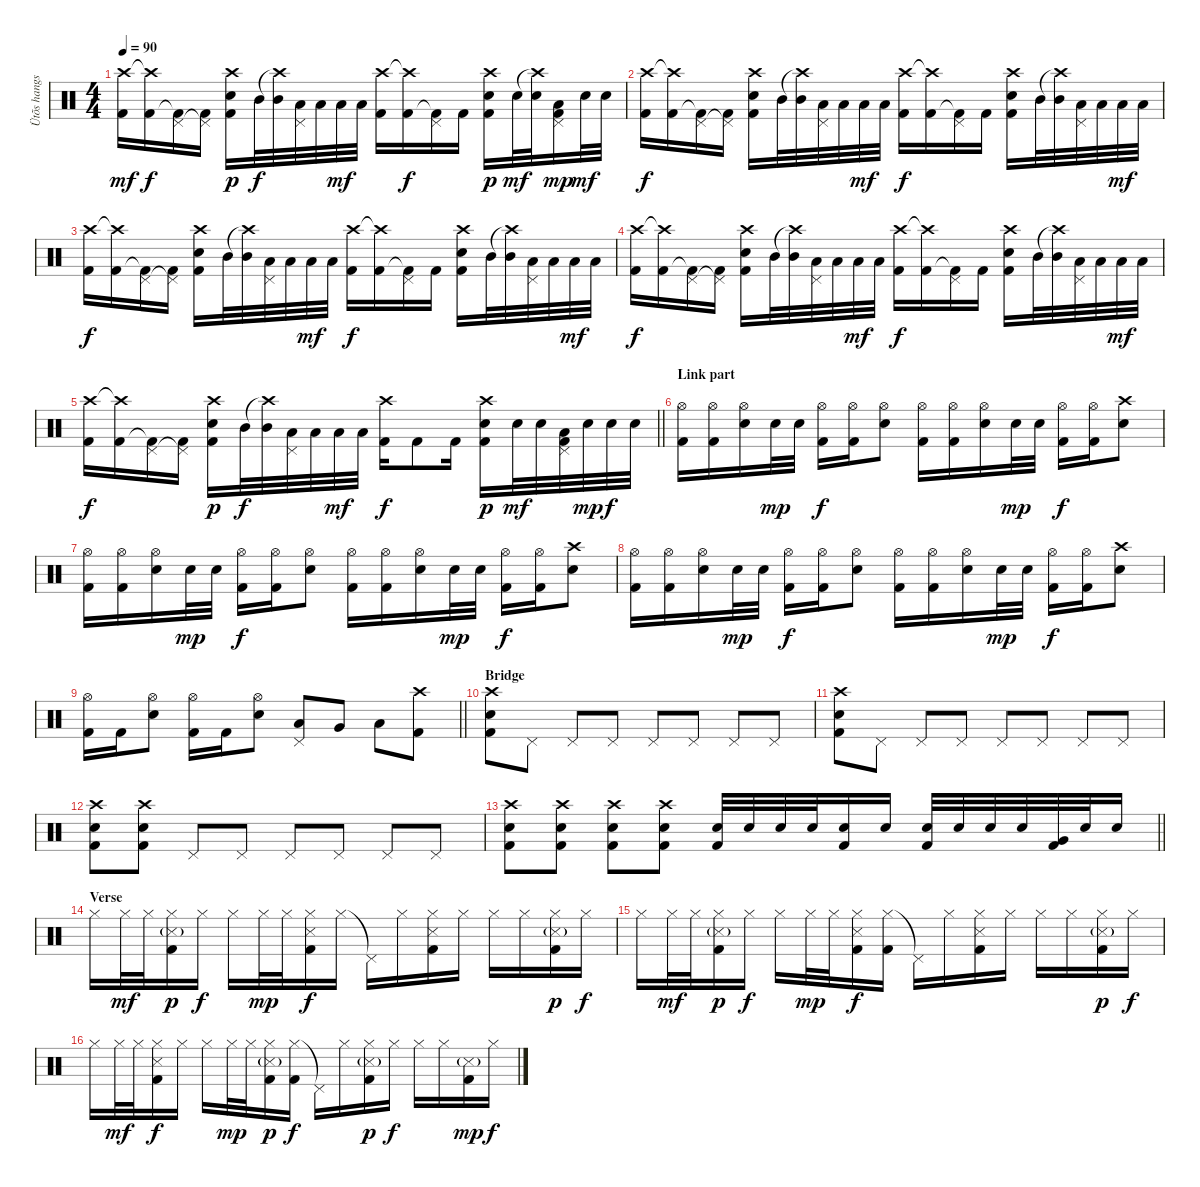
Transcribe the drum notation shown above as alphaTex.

\track ("Ütõs hangszer" "Ütõs hangs") {instrument percussion}
\staff {score}
\articulation defaults
\ts (4 4)
\tempo 90
\clef neutral
\ks c
("Crash high (hit)" "Kick (hit) 2").16{dy mf} ("Crash high (hit)"{t} "Kick (hit) 2").16{dy f} ("Pedal Hi-Hat (hit)" "Kick (hit) 2"{t}).16 ("Pedal Hi-Hat (hit)"{t} "Kick (hit) 2").16 ("Crash high (hit)" "Snare (hit) 2" "Kick (hit) 2").16{dy p} "Mid Tom (hit)".32{dy f} ("Crash high (hit)"{t} "Mid Tom (hit)").32 ("Pedal Hi-Hat (hit)" "Low Tom (hit)").32 "Low Tom (hit)".32 "Low Tom (hit)".32{dy mf} "Low Tom (hit)".32 ("Crash high (hit)" "Kick (hit) 2").16 ("Crash high (hit)"{t} "Kick (hit) 2").16{dy f} ("Pedal Hi-Hat (hit)" "Kick (hit) 2"{t}).16 "Kick (hit) 2".16 ("Crash high (hit)" "Snare (hit) 2" "Kick (hit) 2").16{dy p} "Snare (hit) 2".32{dy mf} ("Crash high (hit)"{t} "Snare (hit) 2").32 ("Pedal Hi-Hat (hit)" "Low Floor Tom (hit)" "Kick (hit) 2").16{dy mp} "Snare (hit) 2".32{dy mf} "Snare (hit) 2".32 |
("Crash high (hit)" "Kick (hit) 2").16{dy f} ("Crash high (hit)"{t} "Kick (hit) 2").16 ("Pedal Hi-Hat (hit)" "Kick (hit) 2"{t}).16 ("Pedal Hi-Hat (hit)"{t} "Kick (hit) 2").16 ("Crash high (hit)" "Snare (hit) 2" "Kick (hit) 2").16 "Mid Tom (hit)".32 ("Crash high (hit)"{t} "Mid Tom (hit)").32 ("Pedal Hi-Hat (hit)" "Low Tom (hit)").32 "Low Tom (hit)".32 "Low Tom (hit)".32{dy mf} "Low Tom (hit)".32 ("Crash high (hit)" "Kick (hit) 2").16{dy f} ("Crash high (hit)"{t} "Kick (hit) 2").16 ("Pedal Hi-Hat (hit)" "Kick (hit) 2"{t}).16 "Kick (hit) 2".16 ("Crash high (hit)" "Snare (hit) 2" "Kick (hit) 2").16 "Mid Tom (hit)".32 ("Crash high (hit)"{t} "Mid Tom (hit)").32 ("Pedal Hi-Hat (hit)" "Low Tom (hit)").32 "Low Tom (hit)".32 "Low Tom (hit)".32{dy mf} "Low Tom (hit)".32 |
("Crash high (hit)" "Kick (hit) 2").16{dy f} ("Crash high (hit)"{t} "Kick (hit) 2").16 ("Pedal Hi-Hat (hit)" "Kick (hit) 2"{t}).16 ("Pedal Hi-Hat (hit)"{t} "Kick (hit) 2").16 ("Crash high (hit)" "Snare (hit) 2" "Kick (hit) 2").16 "Mid Tom (hit)".32 ("Crash high (hit)"{t} "Mid Tom (hit)").32 ("Pedal Hi-Hat (hit)" "Low Tom (hit)").32 "Low Tom (hit)".32 "Low Tom (hit)".32{dy mf} "Low Tom (hit)".32 ("Crash high (hit)" "Kick (hit) 2").16{dy f} ("Crash high (hit)"{t} "Kick (hit) 2").16 ("Pedal Hi-Hat (hit)" "Kick (hit) 2"{t}).16 "Kick (hit) 2".16 ("Crash high (hit)" "Snare (hit) 2" "Kick (hit) 2").16 "Mid Tom (hit)".32 ("Crash high (hit)"{t} "Mid Tom (hit)").32 ("Pedal Hi-Hat (hit)" "Low Tom (hit)").32 "Low Tom (hit)".32 "Low Tom (hit)".32{dy mf} "Low Tom (hit)".32 |
("Crash high (hit)" "Kick (hit) 2").16{dy f} ("Crash high (hit)"{t} "Kick (hit) 2").16 ("Pedal Hi-Hat (hit)" "Kick (hit) 2"{t}).16 ("Pedal Hi-Hat (hit)"{t} "Kick (hit) 2").16 ("Crash high (hit)" "Snare (hit) 2" "Kick (hit) 2").16 "Mid Tom (hit)".32 ("Crash high (hit)"{t} "Mid Tom (hit)").32 ("Pedal Hi-Hat (hit)" "Low Tom (hit)").32 "Low Tom (hit)".32 "Low Tom (hit)".32{dy mf} "Low Tom (hit)".32 ("Crash high (hit)" "Kick (hit) 2").16{dy f} ("Crash high (hit)"{t} "Kick (hit) 2").16 ("Pedal Hi-Hat (hit)" "Kick (hit) 2"{t}).16 "Kick (hit) 2".16 ("Crash high (hit)" "Snare (hit) 2" "Kick (hit) 2").16 "Mid Tom (hit)".32 ("Crash high (hit)"{t} "Mid Tom (hit)").32 ("Pedal Hi-Hat (hit)" "Low Tom (hit)").32 "Low Tom (hit)".32 "Low Tom (hit)".32{dy mf} "Low Tom (hit)".32 |
\barLineRight lightlight
("Crash high (hit)" "Kick (hit) 2").16{dy f} ("Crash high (hit)"{t} "Kick (hit) 2").16 ("Pedal Hi-Hat (hit)" "Kick (hit) 2"{t}).16 ("Pedal Hi-Hat (hit)"{t} "Kick (hit) 2").16 ("Crash high (hit)" "Snare (hit) 2" "Kick (hit) 2").16{dy p} "Mid Tom (hit)".32{dy f} ("Crash high (hit)"{t} "Mid Tom (hit)").32 ("Pedal Hi-Hat (hit)" "Low Tom (hit)").32 "Low Tom (hit)".32 "Low Tom (hit)".32{dy mf} "Low Tom (hit)".32 ("Crash high (hit)" "Kick (hit) 2").16{dy f} "Kick (hit) 2".8 "Kick (hit) 2".16 ("Crash high (hit)" "Snare (hit) 2" "Kick (hit) 2").16{dy p} "Snare (hit) 2".32{dy mf} "Snare (hit) 2".32 ("Pedal Hi-Hat (hit)" "Low Floor Tom (hit)" "Kick (hit) 2").32 "Snare (hit) 2".32{dy mp} "Snare (hit) 2".32{dy f} "Snare (hit) 2".32 |
\section ("" "Link part")
("Hi-Hat (open)" "Kick (hit) 2").16 ("Hi-Hat (open)" "Kick (hit) 2").16 ("Hi-Hat (open)" "Snare (hit) 2").16 "Snare (hit) 2".32{dy mp} "Snare (hit) 2".32 ("Hi-Hat (open)" "Kick (hit) 2").16{dy f} ("Hi-Hat (open)" "Kick (hit) 2").16 ("Hi-Hat (open)" "Snare (hit) 2").8 ("Hi-Hat (open)" "Kick (hit) 2").16 ("Hi-Hat (open)" "Kick (hit) 2").16 ("Hi-Hat (open)" "Snare (hit) 2").16 "Snare (hit) 2".32{dy mp} "Snare (hit) 2".32 ("Hi-Hat (open)" "Kick (hit) 2").16{dy f} ("Hi-Hat (open)" "Kick (hit) 2").16 ("Crash high (hit)" "Snare (hit) 2").8 |
("Hi-Hat (open)" "Kick (hit) 2").16 ("Hi-Hat (open)" "Kick (hit) 2").16 ("Hi-Hat (open)" "Snare (hit) 2").16 "Snare (hit) 2".32{dy mp} "Snare (hit) 2".32 ("Hi-Hat (open)" "Kick (hit) 2").16{dy f} ("Hi-Hat (open)" "Kick (hit) 2").16 ("Hi-Hat (open)" "Snare (hit) 2").8 ("Hi-Hat (open)" "Kick (hit) 2").16 ("Hi-Hat (open)" "Kick (hit) 2").16 ("Hi-Hat (open)" "Snare (hit) 2").16 "Snare (hit) 2".32{dy mp} "Snare (hit) 2".32 ("Hi-Hat (open)" "Kick (hit) 2").16{dy f} ("Hi-Hat (open)" "Kick (hit) 2").16 ("Crash high (hit)" "Snare (hit) 2").8 |
("Hi-Hat (open)" "Kick (hit) 2").16 ("Hi-Hat (open)" "Kick (hit) 2").16 ("Hi-Hat (open)" "Snare (hit) 2").16 "Snare (hit) 2".32{dy mp} "Snare (hit) 2".32 ("Hi-Hat (open)" "Kick (hit) 2").16{dy f} ("Hi-Hat (open)" "Kick (hit) 2").16 ("Hi-Hat (open)" "Snare (hit) 2").8 ("Hi-Hat (open)" "Kick (hit) 2").16 ("Hi-Hat (open)" "Kick (hit) 2").16 ("Hi-Hat (open)" "Snare (hit) 2").16 "Snare (hit) 2".32{dy mp} "Snare (hit) 2".32 ("Hi-Hat (open)" "Kick (hit) 2").16{dy f} ("Hi-Hat (open)" "Kick (hit) 2").16 ("Crash high (hit)" "Snare (hit) 2").8 |
\barLineRight lightlight
("Hi-Hat (open)" "Kick (hit) 2").16 "Kick (hit) 2".16 ("Hi-Hat (open)" "Snare (hit) 2").8 ("Hi-Hat (open)" "Kick (hit) 2").16 "Kick (hit) 2".16 ("Hi-Hat (open)" "Snare (hit) 2").8 ("Pedal Hi-Hat (hit)" "Low Tom (hit)").8 "Very Low Tom (hit)".8 "Low Floor Tom (hit)".8 ("Crash high (hit)" "Kick (hit) 2").8 |
\section ("" "Bridge")
("Crash high (hit)" "Snare (hit) 2" "Kick (hit) 2").8 "Pedal Hi-Hat (hit)".8 "Pedal Hi-Hat (hit)".8 "Pedal Hi-Hat (hit)".8 "Pedal Hi-Hat (hit)".8 "Pedal Hi-Hat (hit)".8 "Pedal Hi-Hat (hit)".8 "Pedal Hi-Hat (hit)".8 |
("Crash high (hit)" "Snare (hit) 2" "Kick (hit) 2").8 "Pedal Hi-Hat (hit)".8 "Pedal Hi-Hat (hit)".8 "Pedal Hi-Hat (hit)".8 "Pedal Hi-Hat (hit)".8 "Pedal Hi-Hat (hit)".8 "Pedal Hi-Hat (hit)".8 "Pedal Hi-Hat (hit)".8 |
("Crash high (hit)" "Snare (hit) 2" "Kick (hit) 2").8 ("Crash high (hit)" "Snare (hit) 2" "Kick (hit) 2").8 "Pedal Hi-Hat (hit)".8 "Pedal Hi-Hat (hit)".8 "Pedal Hi-Hat (hit)".8 "Pedal Hi-Hat (hit)".8 "Pedal Hi-Hat (hit)".8 "Pedal Hi-Hat (hit)".8 |
\barLineRight lightlight
("Crash high (hit)" "Snare (hit) 2" "Kick (hit) 2").8 ("Crash high (hit)" "Snare (hit) 2" "Kick (hit) 2").8 ("Crash high (hit)" "Snare (hit) 2" "Kick (hit) 2").8 ("Crash high (hit)" "Snare (hit) 2" "Kick (hit) 2").8 ("Snare (hit) 2" "Kick (hit) 2").32 "Snare (hit) 2".32 "Snare (hit) 2".32 "Snare (hit) 2".32 ("Snare (hit) 2" "Kick (hit) 2").16 "Snare (hit) 2".16 ("Snare (hit) 2" "Kick (hit) 2").32 "Snare (hit) 2".32 "Snare (hit) 2".32 "Snare (hit) 2".32 ("Very Low Tom (hit)" "Kick (hit) 2").32 "Snare (hit) 2".32 "Snare (hit) 2".16 |
\section ("" "Verse")
"Hi-Hat (closed)".16 "Hi-Hat (closed)".32{dy mf} "Hi-Hat (closed)".32 ("Hi-Hat (closed)" "Snare (side stick) 3"{g} "Kick (hit) 2").16{dy p} "Hi-Hat (closed)".16{dy f} "Hi-Hat (closed)".16 "Hi-Hat (closed)".32{dy mp} "Hi-Hat (closed)".32 ("Hi-Hat (closed)" "Snare (side stick) 3" "Kick (hit) 2").16{dy f} "Hi-Hat (closed)".16 "Pedal Hi-Hat (hit)"{t}.16 "Hi-Hat (closed)".16 ("Hi-Hat (closed)" "Snare (side stick) 3" "Kick (hit) 2").16 "Hi-Hat (closed)".16 "Hi-Hat (closed)".16 "Hi-Hat (closed)".16 ("Hi-Hat (closed)" "Snare (side stick) 3"{g} "Kick (hit) 2").16{dy p} "Hi-Hat (closed)".16{dy f} |
"Hi-Hat (closed)".16 "Hi-Hat (closed)".32{dy mf} "Hi-Hat (closed)".32 ("Hi-Hat (closed)" "Snare (side stick) 3"{g} "Kick (hit) 2").16{dy p} "Hi-Hat (closed)".16{dy f} "Hi-Hat (closed)".16 "Hi-Hat (closed)".32{dy mp} "Hi-Hat (closed)".32 ("Hi-Hat (closed)" "Snare (side stick) 3" "Kick (hit) 2").16{dy f} ("Hi-Hat (closed)" "Kick (hit) 2").16 "Pedal Hi-Hat (hit)"{t}.16 "Hi-Hat (closed)".16 ("Hi-Hat (closed)" "Snare (side stick) 3" "Kick (hit) 2").16 "Hi-Hat (closed)".16 "Hi-Hat (closed)".16 "Hi-Hat (closed)".16 ("Hi-Hat (closed)" "Snare (side stick) 3"{g} "Kick (hit) 2").16{dy p} "Hi-Hat (closed)".16{dy f} |
"Hi-Hat (closed)".16 "Hi-Hat (closed)".32{dy mf} "Hi-Hat (closed)".32 ("Hi-Hat (closed)" "Snare (side stick) 3" "Kick (hit) 2").16{dy f} "Hi-Hat (closed)".16 "Hi-Hat (closed)".16 "Hi-Hat (closed)".32{dy mp} "Hi-Hat (closed)".32 ("Hi-Hat (closed)" "Snare (side stick) 3"{g} "Kick (hit) 2").16{dy p} ("Hi-Hat (closed)" "Kick (hit) 2").16{dy f} "Pedal Hi-Hat (hit)"{t}.16 "Hi-Hat (closed)".16 ("Hi-Hat (closed)" "Snare (side stick) 3"{g} "Kick (hit) 2").16{dy p} "Hi-Hat (closed)".16{dy f} "Hi-Hat (closed)".16 "Hi-Hat (closed)".16 ("Snare (side stick) 3"{g} "Kick (hit) 2").16{dy mp} "Hi-Hat (closed)".16{dy f}
